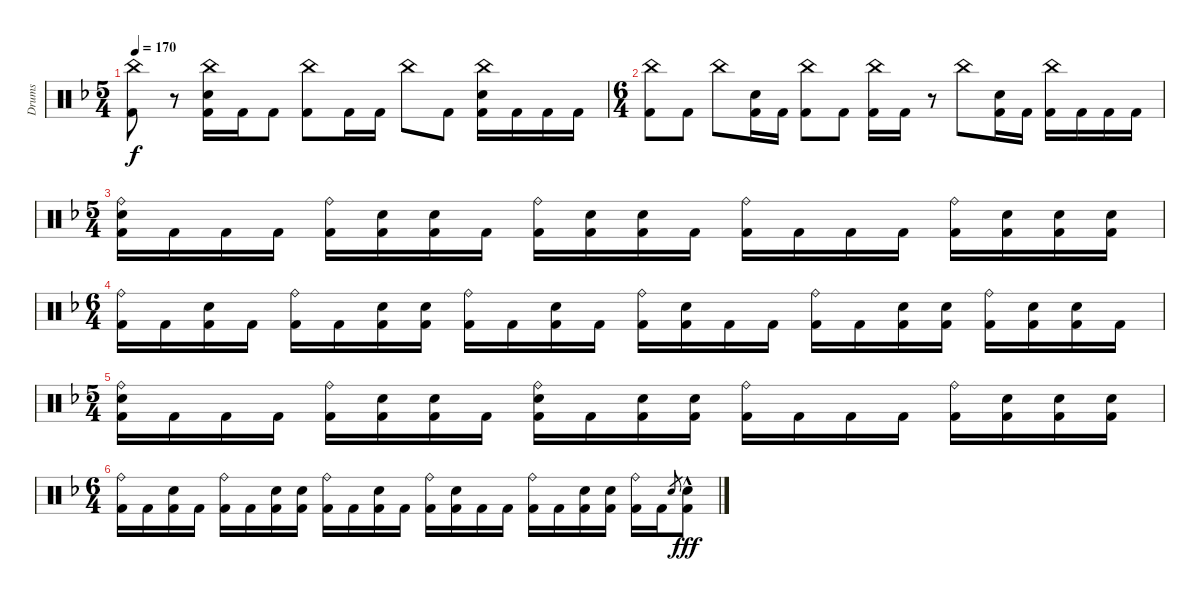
\track ("Drums" "Drums") {instrument percussion}
\staff {score}
\articulation defaults
\ts (5 4)
\tempo 170
\clef neutral
\ks dminor
("China (hit)" "Kick (hit) 2").8{dy f} r.8 ("China (hit)" "Electric Snare (hit)" "Kick (hit) 2").16 "Kick (hit) 2".16 "Kick (hit) 2".8 ("China (hit)" "Kick (hit) 2").8 "Kick (hit) 2".16 "Kick (hit) 2".16 "China (hit)".8 "Kick (hit) 2".8 ("China (hit)" "Electric Snare (hit)" "Kick (hit) 2").16 "Kick (hit) 2".16 "Kick (hit) 2".16 "Kick (hit) 2".16 |
\ts (6 4)
("China (hit)" "Kick (hit) 2").8 "Kick (hit) 2".8 "China (hit)".8 ("Electric Snare (hit)" "Kick (hit) 2").16 "Kick (hit) 2".16 ("China (hit)" "Kick (hit) 2").8 "Kick (hit) 2".8 ("China (hit)" "Kick (hit) 2").16 "Kick (hit) 2".16 r.8 "China (hit)".8 ("Electric Snare (hit)" "Kick (hit) 2").16 "Kick (hit) 2".16 ("China (hit)" "Kick (hit) 2").16 "Kick (hit) 2".16 "Kick (hit) 2".16 "Kick (hit) 2".16 |
\ts (5 4)
("Ride (bell)" "Electric Snare (hit)" "Kick (hit) 2").16 "Kick (hit) 2".16 "Kick (hit) 2".16 "Kick (hit) 2".16 ("Ride (bell)" "Kick (hit) 2").16 ("Electric Snare (hit)" "Kick (hit) 2").16 ("Electric Snare (hit)" "Kick (hit) 2").16 "Kick (hit) 2".16 ("Ride (bell)" "Kick (hit) 2").16 ("Electric Snare (hit)" "Kick (hit) 2").16 ("Electric Snare (hit)" "Kick (hit) 2").16 "Kick (hit) 2".16 ("Ride (bell)" "Kick (hit) 2").16 "Kick (hit) 2".16 "Kick (hit) 2".16 "Kick (hit) 2".16 ("Ride (bell)" "Kick (hit) 2").16 ("Electric Snare (hit)" "Kick (hit) 2").16 ("Electric Snare (hit)" "Kick (hit) 2").16 ("Electric Snare (hit)" "Kick (hit) 2").16 |
\ts (6 4)
("Ride (bell)" "Kick (hit) 2").16 "Kick (hit) 2".16 ("Electric Snare (hit)" "Kick (hit) 2").16 "Kick (hit) 2".16 ("Ride (bell)" "Kick (hit) 2").16 "Kick (hit) 2".16 ("Electric Snare (hit)" "Kick (hit) 2").16 ("Electric Snare (hit)" "Kick (hit) 2").16 ("Ride (bell)" "Kick (hit) 2").16 "Kick (hit) 2".16 ("Electric Snare (hit)" "Kick (hit) 2").16 "Kick (hit) 2".16 ("Ride (bell)" "Kick (hit) 2").16 ("Electric Snare (hit)" "Kick (hit) 2").16 "Kick (hit) 2".16 "Kick (hit) 2".16 ("Ride (bell)" "Kick (hit) 2").16 "Kick (hit) 2".16 ("Electric Snare (hit)" "Kick (hit) 2").16 ("Electric Snare (hit)" "Kick (hit) 2").16 ("Ride (bell)" "Kick (hit) 2").16 ("Electric Snare (hit)" "Kick (hit) 2").16 ("Electric Snare (hit)" "Kick (hit) 2").16 "Kick (hit) 2".16 |
\ts (5 4)
("Ride (bell)" "Electric Snare (hit)" "Kick (hit) 2").16 "Kick (hit) 2".16 "Kick (hit) 2".16 "Kick (hit) 2".16 ("Ride (bell)" "Kick (hit) 2").16 ("Electric Snare (hit)" "Kick (hit) 2").16 ("Electric Snare (hit)" "Kick (hit) 2").16 "Kick (hit) 2".16 ("Ride (bell)" "Electric Snare (hit)" "Kick (hit) 2").16 "Kick (hit) 2".16 ("Electric Snare (hit)" "Kick (hit) 2").16 ("Electric Snare (hit)" "Kick (hit) 2").16 ("Ride (bell)" "Kick (hit) 2").16 "Kick (hit) 2".16 "Kick (hit) 2".16 "Kick (hit) 2".16 ("Ride (bell)" "Kick (hit) 2").16 ("Electric Snare (hit)" "Kick (hit) 2").16 ("Electric Snare (hit)" "Kick (hit) 2").16 ("Electric Snare (hit)" "Kick (hit) 2").16 |
\ts (6 4)
("Ride (bell)" "Kick (hit) 2").16 "Kick (hit) 2".16 ("Electric Snare (hit)" "Kick (hit) 2").16 "Kick (hit) 2".16 ("Ride (bell)" "Kick (hit) 2").16 "Kick (hit) 2".16 ("Electric Snare (hit)" "Kick (hit) 2").16 ("Electric Snare (hit)" "Kick (hit) 2").16 ("Ride (bell)" "Kick (hit) 2").16 "Kick (hit) 2".16 ("Electric Snare (hit)" "Kick (hit) 2").16 "Kick (hit) 2".16 ("Ride (bell)" "Kick (hit) 2").16 ("Electric Snare (hit)" "Kick (hit) 2").16 "Kick (hit) 2".16 "Kick (hit) 2".16 ("Ride (bell)" "Kick (hit) 2").16 "Kick (hit) 2".16 ("Electric Snare (hit)" "Kick (hit) 2").16 ("Electric Snare (hit)" "Kick (hit) 2").16 ("Ride (bell)" "Kick (hit) 2").16 "Kick (hit) 2".16 "Electric Snare (hit)".8{gr} ("Electric Snare (hit)"{hac} "Kick (hit) 2").8{dy fff}
